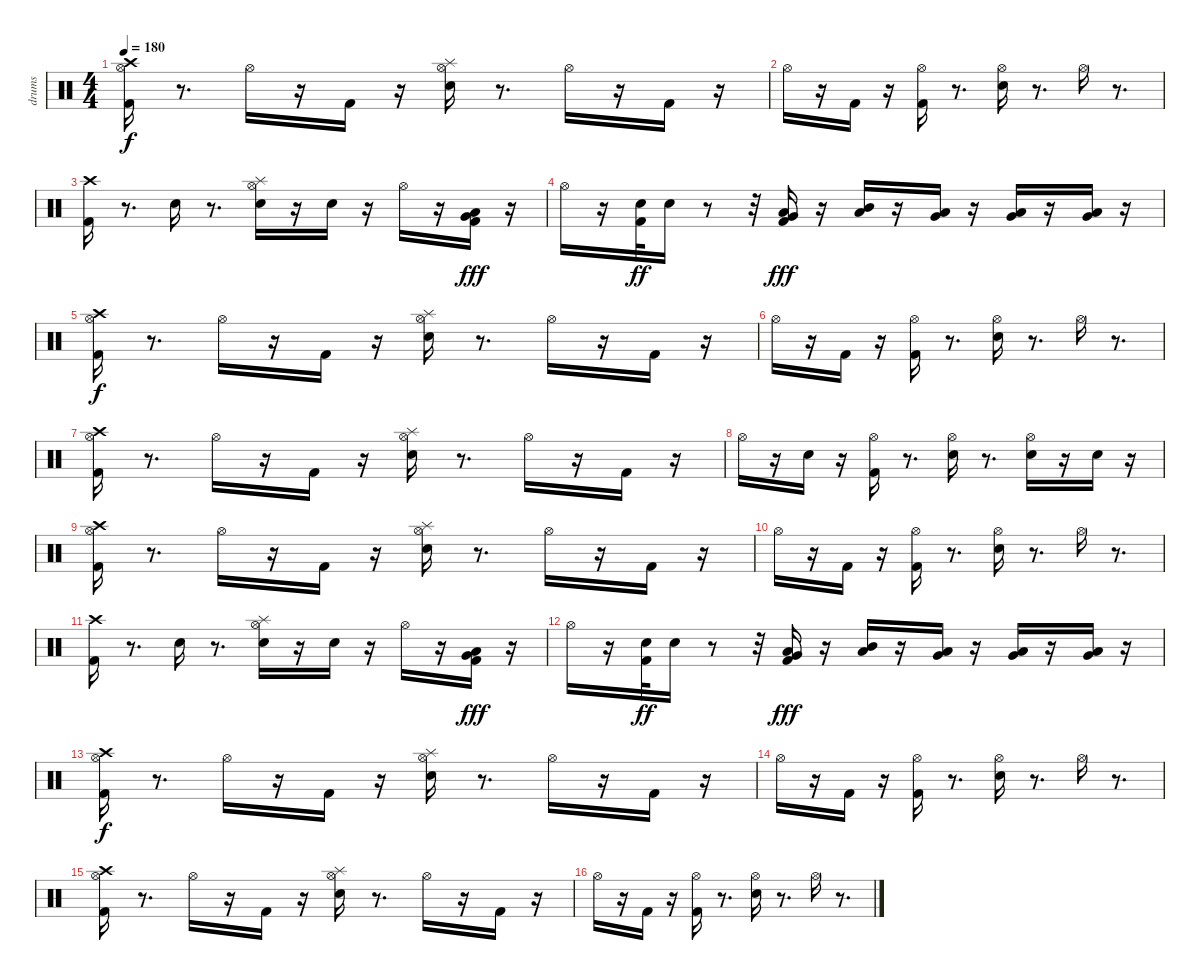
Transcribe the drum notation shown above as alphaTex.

\track ("drums" "drums") {instrument percussion}
\staff {score}
\articulation defaults
\ts (4 4)
\tempo 180
\clef neutral
\ks c
("Crash high (hit)" "Kick (hit) 2" "Hi-Hat (open)").16{dy f} r.8{d} "Hi-Hat (open)".16 r.16 "Kick (hit) 2".16 r.16 ("Splash (hit)" "Electric Snare (hit)" "Hi-Hat (open)").16 r.8{d} "Hi-Hat (open)".16 r.16 "Kick (hit) 2".16 r.16 |
"Hi-Hat (open)".16 r.16 "Kick (hit) 2".16 r.16 ("Hi-Hat (open)" "Kick (hit) 2").16 r.8{d} ("Hi-Hat (open)" "Electric Snare (hit)").16 r.8{d} "Hi-Hat (open)".16 r.8{d} |
("Crash high (hit)" "Kick (hit) 2").16 r.8{d} "Electric Snare (hit)".16 r.8{d} ("Splash (hit)" "Hi-Hat (open)" "Electric Snare (hit)").16 r.16 "Electric Snare (hit)".16 r.16 "Hi-Hat (open)".16 r.16 ("Very Low Tom (hit)" "Low Floor Tom (hit)" "Kick (hit) 2").16{dy fff} r.16 |
"Hi-Hat (open)".16 r.16 ("Electric Snare (hit)" "Kick (hit) 2").32{dy ff} "Electric Snare (hit)".16 r.8 r.32 ("Low Tom (hit)" "Very Low Tom (hit)" "Kick (hit) 2").16{dy fff} r.16 ("Low Tom (hit)" "Mid Tom (hit)").16 r.16 ("Very Low Tom (hit)" "Low Tom (hit)").16 r.16 ("Low Tom (hit)" "Very Low Tom (hit)").16 r.16 ("Very Low Tom (hit)" "Low Floor Tom (hit)").16 r.16 |
("Crash high (hit)" "Kick (hit) 2" "Hi-Hat (open)").16{dy f} r.8{d} "Hi-Hat (open)".16 r.16 "Kick (hit) 2".16 r.16 ("Electric Snare (hit)" "Hi-Hat (open)" "Splash (hit)").16 r.8{d} "Hi-Hat (open)".16 r.16 "Kick (hit) 2".16 r.16 |
"Hi-Hat (open)".16 r.16 "Kick (hit) 2".16 r.16 ("Hi-Hat (open)" "Kick (hit) 2").16 r.8{d} ("Hi-Hat (open)" "Electric Snare (hit)").16 r.8{d} "Hi-Hat (open)".16 r.8{d} |
("Crash high (hit)" "Kick (hit) 2" "Hi-Hat (open)").16 r.8{d} "Hi-Hat (open)".16 r.16 "Kick (hit) 2".16 r.16 ("Splash (hit)" "Electric Snare (hit)" "Hi-Hat (open)").16 r.8{d} "Hi-Hat (open)".16 r.16 "Kick (hit) 2".16 r.16 |
"Hi-Hat (open)".16 r.16 "Electric Snare (hit)".16 r.16 ("Hi-Hat (open)" "Kick (hit) 2").16 r.8{d} ("Hi-Hat (open)" "Electric Snare (hit)").16 r.8{d} ("Hi-Hat (open)" "Electric Snare (hit)").16 r.16 "Electric Snare (hit)".16 r.16 |
("Crash high (hit)" "Kick (hit) 2" "Hi-Hat (open)").16 r.8{d} "Hi-Hat (open)".16 r.16 "Kick (hit) 2".16 r.16 ("Splash (hit)" "Electric Snare (hit)" "Hi-Hat (open)").16 r.8{d} "Hi-Hat (open)".16 r.16 "Kick (hit) 2".16 r.16 |
"Hi-Hat (open)".16 r.16 "Kick (hit) 2".16 r.16 ("Hi-Hat (open)" "Kick (hit) 2").16 r.8{d} ("Hi-Hat (open)" "Electric Snare (hit)").16 r.8{d} "Hi-Hat (open)".16 r.8{d} |
("Crash high (hit)" "Kick (hit) 2").16 r.8{d} "Electric Snare (hit)".16 r.8{d} ("Splash (hit)" "Hi-Hat (open)" "Electric Snare (hit)").16 r.16 "Electric Snare (hit)".16 r.16 "Hi-Hat (open)".16 r.16 ("Very Low Tom (hit)" "Low Floor Tom (hit)" "Kick (hit) 2").16{dy fff} r.16 |
"Hi-Hat (open)".16 r.16 ("Electric Snare (hit)" "Kick (hit) 2").32{dy ff} "Electric Snare (hit)".16 r.8 r.32 ("Low Tom (hit)" "Very Low Tom (hit)" "Kick (hit) 2").16{dy fff} r.16 ("Low Tom (hit)" "Mid Tom (hit)").16 r.16 ("Very Low Tom (hit)" "Low Tom (hit)").16 r.16 ("Low Tom (hit)" "Very Low Tom (hit)").16 r.16 ("Very Low Tom (hit)" "Low Floor Tom (hit)").16 r.16 |
("Crash high (hit)" "Kick (hit) 2" "Hi-Hat (open)").16{dy f} r.8{d} "Hi-Hat (open)".16 r.16 "Kick (hit) 2".16 r.16 ("Splash (hit)" "Electric Snare (hit)" "Hi-Hat (open)").16 r.8{d} "Hi-Hat (open)".16 r.16 "Kick (hit) 2".16 r.16 |
"Hi-Hat (open)".16 r.16 "Kick (hit) 2".16 r.16 ("Hi-Hat (open)" "Kick (hit) 2").16 r.8{d} ("Hi-Hat (open)" "Electric Snare (hit)").16 r.8{d} "Hi-Hat (open)".16 r.8{d} |
("Crash high (hit)" "Kick (hit) 2" "Hi-Hat (open)").16 r.8{d} "Hi-Hat (open)".16 r.16 "Kick (hit) 2".16 r.16 ("Splash (hit)" "Electric Snare (hit)" "Hi-Hat (open)").16 r.8{d} "Hi-Hat (open)".16 r.16 "Kick (hit) 2".16 r.16 |
"Hi-Hat (open)".16 r.16 "Kick (hit) 2".16 r.16 ("Hi-Hat (open)" "Kick (hit) 2").16 r.8{d} ("Hi-Hat (open)" "Electric Snare (hit)").16 r.8{d} "Hi-Hat (open)".16 r.8{d}
